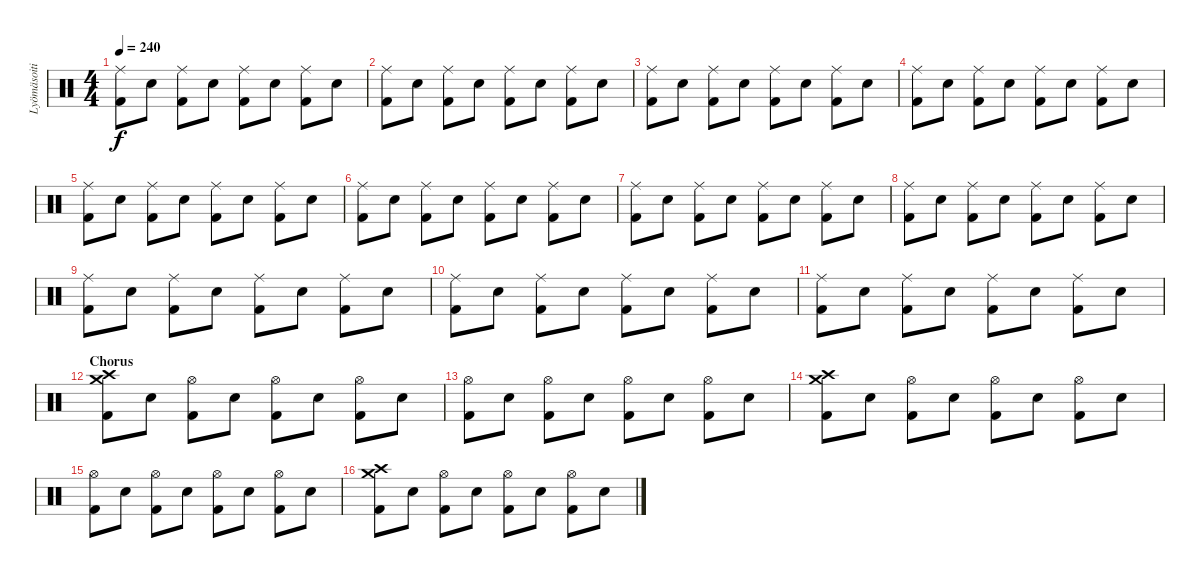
\track ("Lyömäsoitin" "Lyömäsoiti") {instrument percussion}
\staff {score}
\articulation defaults
\ts (4 4)
\tempo 240
\clef neutral
\ks c
("Ride (middle)" "Kick (hit) 2").8{dy f} "Snare (hit) 2".8 ("Ride (middle)" "Kick (hit) 2").8 "Snare (hit) 2".8 ("Ride (middle)" "Kick (hit) 2").8 "Snare (hit) 2".8 ("Ride (middle)" "Kick (hit) 2").8 "Snare (hit) 2".8 |
("Ride (middle)" "Kick (hit) 2").8 "Snare (hit) 2".8 ("Ride (middle)" "Kick (hit) 2").8 "Snare (hit) 2".8 ("Ride (middle)" "Kick (hit) 2").8 "Snare (hit) 2".8 ("Ride (middle)" "Kick (hit) 2").8 "Snare (hit) 2".8 |
("Ride (middle)" "Kick (hit) 2").8 "Snare (hit) 2".8 ("Ride (middle)" "Kick (hit) 2").8 "Snare (hit) 2".8 ("Ride (middle)" "Kick (hit) 2").8 "Snare (hit) 2".8 ("Ride (middle)" "Kick (hit) 2").8 "Snare (hit) 2".8 |
("Ride (middle)" "Kick (hit) 2").8 "Snare (hit) 2".8 ("Ride (middle)" "Kick (hit) 2").8 "Snare (hit) 2".8 ("Ride (middle)" "Kick (hit) 2").8 "Snare (hit) 2".8 ("Ride (middle)" "Kick (hit) 2").8 "Snare (hit) 2".8 |
("Ride (middle)" "Kick (hit) 2").8 "Snare (hit) 2".8 ("Ride (middle)" "Kick (hit) 2").8 "Snare (hit) 2".8 ("Ride (middle)" "Kick (hit) 2").8 "Snare (hit) 2".8 ("Ride (middle)" "Kick (hit) 2").8 "Snare (hit) 2".8 |
("Ride (middle)" "Kick (hit) 2").8 "Snare (hit) 2".8 ("Ride (middle)" "Kick (hit) 2").8 "Snare (hit) 2".8 ("Ride (middle)" "Kick (hit) 2").8 "Snare (hit) 2".8 ("Ride (middle)" "Kick (hit) 2").8 "Snare (hit) 2".8 |
("Ride (middle)" "Kick (hit) 2").8 "Snare (hit) 2".8 ("Ride (middle)" "Kick (hit) 2").8 "Snare (hit) 2".8 ("Ride (middle)" "Kick (hit) 2").8 "Snare (hit) 2".8 ("Ride (middle)" "Kick (hit) 2").8 "Snare (hit) 2".8 |
("Ride (middle)" "Kick (hit) 2").8 "Snare (hit) 2".8 ("Ride (middle)" "Kick (hit) 2").8 "Snare (hit) 2".8 ("Ride (middle)" "Kick (hit) 2").8 "Snare (hit) 2".8 ("Ride (middle)" "Kick (hit) 2").8 "Snare (hit) 2".8 |
("Ride (middle)" "Kick (hit) 2").8 "Snare (hit) 2".8 ("Ride (middle)" "Kick (hit) 2").8 "Snare (hit) 2".8 ("Ride (middle)" "Kick (hit) 2").8 "Snare (hit) 2".8 ("Ride (middle)" "Kick (hit) 2").8 "Snare (hit) 2".8 |
("Ride (middle)" "Kick (hit) 2").8 "Snare (hit) 2".8 ("Ride (middle)" "Kick (hit) 2").8 "Snare (hit) 2".8 ("Ride (middle)" "Kick (hit) 2").8 "Snare (hit) 2".8 ("Ride (middle)" "Kick (hit) 2").8 "Snare (hit) 2".8 |
("Ride (middle)" "Kick (hit) 2").8 "Snare (hit) 2".8 ("Ride (middle)" "Kick (hit) 2").8 "Snare (hit) 2".8 ("Ride (middle)" "Kick (hit) 2").8 "Snare (hit) 2".8 ("Ride (middle)" "Kick (hit) 2").8 "Snare (hit) 2".8 |
\section ("" "Chorus")
("Crash high (hit)" "Crash medium (hit)" "Kick (hit) 2").8 "Snare (hit) 2".8 ("Hi-Hat (open)" "Kick (hit) 2").8 "Snare (hit) 2".8 ("Hi-Hat (open)" "Kick (hit) 2").8 "Snare (hit) 2".8 ("Hi-Hat (open)" "Kick (hit) 2").8 "Snare (hit) 2".8 |
("Hi-Hat (open)" "Kick (hit) 2").8 "Snare (hit) 2".8 ("Hi-Hat (open)" "Kick (hit) 2").8 "Snare (hit) 2".8 ("Hi-Hat (open)" "Kick (hit) 2").8 "Snare (hit) 2".8 ("Hi-Hat (open)" "Kick (hit) 2").8 "Snare (hit) 2".8 |
("Crash high (hit)" "Crash medium (hit)" "Kick (hit) 2").8 "Snare (hit) 2".8 ("Hi-Hat (open)" "Kick (hit) 2").8 "Snare (hit) 2".8 ("Hi-Hat (open)" "Kick (hit) 2").8 "Snare (hit) 2".8 ("Hi-Hat (open)" "Kick (hit) 2").8 "Snare (hit) 2".8 |
("Hi-Hat (open)" "Kick (hit) 2").8 "Snare (hit) 2".8 ("Hi-Hat (open)" "Kick (hit) 2").8 "Snare (hit) 2".8 ("Hi-Hat (open)" "Kick (hit) 2").8 "Snare (hit) 2".8 ("Hi-Hat (open)" "Kick (hit) 2").8 "Snare (hit) 2".8 |
("Crash high (hit)" "Crash medium (hit)" "Kick (hit) 2").8 "Snare (hit) 2".8 ("Hi-Hat (open)" "Kick (hit) 2").8 "Snare (hit) 2".8 ("Hi-Hat (open)" "Kick (hit) 2").8 "Snare (hit) 2".8 ("Hi-Hat (open)" "Kick (hit) 2").8 "Snare (hit) 2".8
